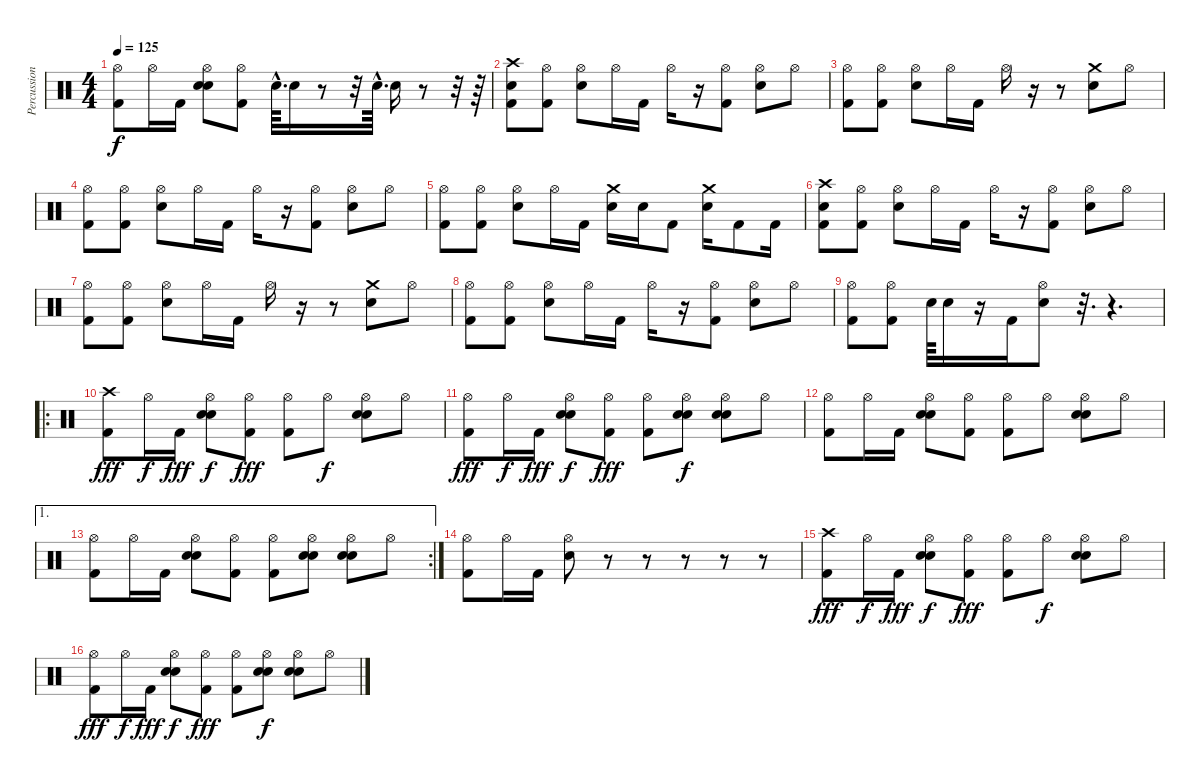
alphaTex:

\track ("Percussion" "Percussion") {instrument percussion}
\staff {score}
\articulation defaults
\ts (4 4)
\tempo 125
\clef neutral
\ks c
("Hi-Hat (open)" "Kick (hit) 2").8{dy f} "Hi-Hat (open)".16 "Kick (hit) 2".16 ("Hand Clap (hit)" "Hi-Hat (open)" "Electric Snare (hit)").8 ("Hi-Hat (open)" "Kick (hit) 2").8 "Electric Snare (hit)"{hac}.64{d} "Electric Snare (hit)".16 r.8 r.32 "Electric Snare (hit)"{hac}.64{d} "Electric Snare (hit)".16 r.8 r.32 r.64 |
("Crash high (hit)" "Electric Snare (hit)" "Kick (hit) 2").8 ("Hi-Hat (open)" "Kick (hit) 2").8 ("Hi-Hat (open)" "Electric Snare (hit)").8 "Hi-Hat (open)".16 "Kick (hit) 2".16 "Hi-Hat (open)".16 r.16 ("Hi-Hat (open)" "Kick (hit) 2").8 ("Hi-Hat (open)" "Electric Snare (hit)").8 "Hi-Hat (open)".8 |
("Hi-Hat (open)" "Kick (hit) 2").8 ("Hi-Hat (open)" "Kick (hit) 2").8 ("Hi-Hat (open)" "Electric Snare (hit)").8 "Hi-Hat (open)".16 "Kick (hit) 2".16 "Hi-Hat (open)".16 r.16 r.8 ("Crash medium (hit)" "Electric Snare (hit)").8 "Hi-Hat (open)".8 |
("Hi-Hat (open)" "Kick (hit) 2").8 ("Hi-Hat (open)" "Kick (hit) 2").8 ("Hi-Hat (open)" "Electric Snare (hit)").8 "Hi-Hat (open)".16 "Kick (hit) 2".16 "Hi-Hat (open)".16 r.16 ("Hi-Hat (open)" "Kick (hit) 2").8 ("Hi-Hat (open)" "Electric Snare (hit)").8 "Hi-Hat (open)".8 |
("Hi-Hat (open)" "Kick (hit) 2").8 ("Hi-Hat (open)" "Kick (hit) 2").8 ("Hi-Hat (open)" "Electric Snare (hit)").8 "Hi-Hat (open)".16 "Kick (hit) 2".16 ("Crash medium (hit)" "Electric Snare (hit)").16 "Electric Snare (hit)".16 "Kick (hit) 2".8 ("Crash medium (hit)" "Electric Snare (hit)").16 "Kick (hit) 2".8 "Kick (hit) 2".16 |
("Crash high (hit)" "Electric Snare (hit)" "Kick (hit) 2").8 ("Hi-Hat (open)" "Kick (hit) 2").8 ("Hi-Hat (open)" "Electric Snare (hit)").8 "Hi-Hat (open)".16 "Kick (hit) 2".16 "Hi-Hat (open)".16 r.16 ("Hi-Hat (open)" "Kick (hit) 2").8 ("Hi-Hat (open)" "Electric Snare (hit)").8 "Hi-Hat (open)".8 |
("Hi-Hat (open)" "Kick (hit) 2").8 ("Hi-Hat (open)" "Kick (hit) 2").8 ("Hi-Hat (open)" "Electric Snare (hit)").8 "Hi-Hat (open)".16 "Kick (hit) 2".16 "Hi-Hat (open)".16 r.16 r.8 ("Crash medium (hit)" "Electric Snare (hit)").8 "Hi-Hat (open)".8 |
("Hi-Hat (open)" "Kick (hit) 2").8 ("Hi-Hat (open)" "Kick (hit) 2").8 ("Hi-Hat (open)" "Electric Snare (hit)").8 "Hi-Hat (open)".16 "Kick (hit) 2".16 "Hi-Hat (open)".16 r.16 ("Hi-Hat (open)" "Kick (hit) 2").8 ("Hi-Hat (open)" "Electric Snare (hit)").8 "Hi-Hat (open)".8 |
("Hi-Hat (open)" "Kick (hit) 2").8 ("Hi-Hat (open)" "Kick (hit) 2").8 "Electric Snare (hit)".64 "Electric Snare (hit)".16 r.16 "Kick (hit) 2".16 ("Hi-Hat (open)" "Electric Snare (hit)").8 r.32{d} r.4{d} |
\ro
("Crash high (hit)" "Kick (hit) 2").8{dy fff} "Hi-Hat (open)".16{dy f} "Kick (hit) 2".16{dy fff} ("Hand Clap (hit)" "Hi-Hat (open)" "Electric Snare (hit)").8{dy f} ("Hi-Hat (open)" "Kick (hit) 2").8{dy fff} ("Hi-Hat (open)" "Kick (hit) 2").8 "Hi-Hat (open)".8{dy f} ("Hand Clap (hit)" "Hi-Hat (open)" "Electric Snare (hit)").8 "Hi-Hat (open)".8 |
("Hi-Hat (open)" "Kick (hit) 2").8{dy fff} "Hi-Hat (open)".16{dy f} "Kick (hit) 2".16{dy fff} ("Hand Clap (hit)" "Hi-Hat (open)" "Electric Snare (hit)").8{dy f} ("Hi-Hat (open)" "Kick (hit) 2").8{dy fff} ("Hi-Hat (open)" "Kick (hit) 2").8 ("Hand Clap (hit)" "Hi-Hat (open)" "Electric Snare (hit)").8{dy f} ("Hand Clap (hit)" "Hi-Hat (open)" "Electric Snare (hit)").8 "Hi-Hat (open)".8 |
("Hi-Hat (open)" "Kick (hit) 2").8 "Hi-Hat (open)".16 "Kick (hit) 2".16 ("Hand Clap (hit)" "Hi-Hat (open)" "Electric Snare (hit)").8 ("Hi-Hat (open)" "Kick (hit) 2").8 ("Hi-Hat (open)" "Kick (hit) 2").8 "Hi-Hat (open)".8 ("Hand Clap (hit)" "Hi-Hat (open)" "Electric Snare (hit)").8 "Hi-Hat (open)".8 |
\ae 1
\rc 2
("Hi-Hat (open)" "Kick (hit) 2").8 "Hi-Hat (open)".16 "Kick (hit) 2".16 ("Hand Clap (hit)" "Hi-Hat (open)" "Electric Snare (hit)").8 ("Hi-Hat (open)" "Kick (hit) 2").8 ("Hi-Hat (open)" "Kick (hit) 2").8 ("Hand Clap (hit)" "Hi-Hat (open)" "Electric Snare (hit)").8 ("Hand Clap (hit)" "Hi-Hat (open)" "Electric Snare (hit)").8 "Hi-Hat (open)".8 |
("Hi-Hat (open)" "Kick (hit) 2").8 "Hi-Hat (open)".16 "Kick (hit) 2".16 ("Hi-Hat (open)" "Electric Snare (hit)").8 r.8 r.8 r.8 r.8 r.8 |
("Crash high (hit)" "Kick (hit) 2").8{dy fff} "Hi-Hat (open)".16{dy f} "Kick (hit) 2".16{dy fff} ("Hand Clap (hit)" "Hi-Hat (open)" "Electric Snare (hit)").8{dy f} ("Hi-Hat (open)" "Kick (hit) 2").8{dy fff} ("Hi-Hat (open)" "Kick (hit) 2").8 "Hi-Hat (open)".8{dy f} ("Hand Clap (hit)" "Hi-Hat (open)" "Electric Snare (hit)").8 "Hi-Hat (open)".8 |
("Hi-Hat (open)" "Kick (hit) 2").8{dy fff} "Hi-Hat (open)".16{dy f} "Kick (hit) 2".16{dy fff} ("Hand Clap (hit)" "Hi-Hat (open)" "Electric Snare (hit)").8{dy f} ("Hi-Hat (open)" "Kick (hit) 2").8{dy fff} ("Hi-Hat (open)" "Kick (hit) 2").8 ("Hand Clap (hit)" "Hi-Hat (open)" "Electric Snare (hit)").8{dy f} ("Hand Clap (hit)" "Hi-Hat (open)" "Electric Snare (hit)").8 "Hi-Hat (open)".8
